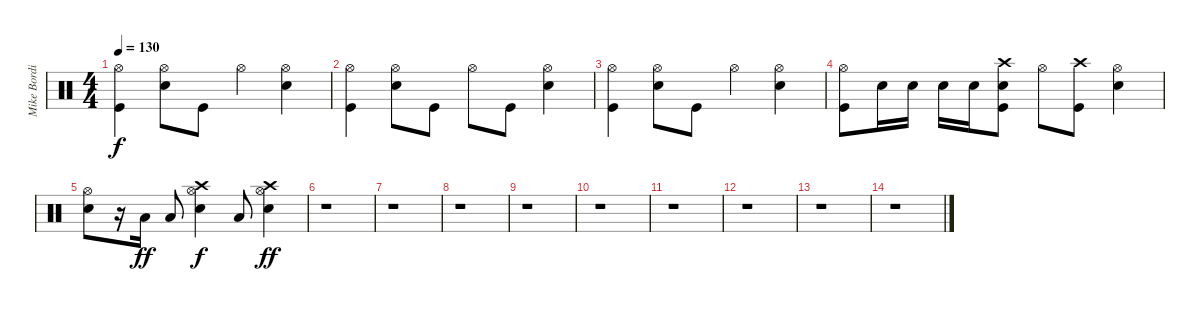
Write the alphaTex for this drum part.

\track ("Mike Bordin" "Mike Bordi") {instrument percussion}
\staff {score}
\articulation defaults
\ts (4 4)
\tempo 130
\clef neutral
\ks c
("Kick (hit)" "Hi-Hat (open)").4{dy f} ("Snare (hit) 2" "Hi-Hat (open)").8 "Kick (hit)".8 "Hi-Hat (open)".4 ("Snare (hit) 2" "Hi-Hat (open)").4 |
("Kick (hit)" "Hi-Hat (open)").4 ("Snare (hit) 2" "Hi-Hat (open)").8 "Kick (hit)".8 "Hi-Hat (open)".8 "Kick (hit)".8 ("Snare (hit) 2" "Hi-Hat (open)").4 |
("Kick (hit)" "Hi-Hat (open)").4 ("Snare (hit) 2" "Hi-Hat (open)").8 "Kick (hit)".8 "Hi-Hat (open)".4 ("Snare (hit) 2" "Hi-Hat (open)").4 |
("Kick (hit)" "Hi-Hat (open)").8 "Snare (hit) 2".16 "Snare (hit) 2".16 "Snare (hit) 2".16 "Snare (hit) 2".16 ("Kick (hit)" "Snare (hit) 2" "Crash high (hit)").8 "Hi-Hat (open)".8 ("Kick (hit)" "Crash high (hit)").8 ("Snare (hit) 2" "Hi-Hat (open)").4 |
("Snare (hit) 2" "Hi-Hat (open)").8 r.16 "Low Tom (hit)".16{dy ff} "Low Tom (hit)".8 ("Snare (hit) 2" "Hi-Hat (open)" "Crash high (hit)").4{dy f} "Low Tom (hit)".8 ("Snare (hit) 2" "Hi-Hat (open)" "Crash high (hit)").4{dy ff} |
r.1 |
r.1 |
r.1 |
r.1 |
r.1 |
r.1 |
r.1 |
r.1 |
r.1
